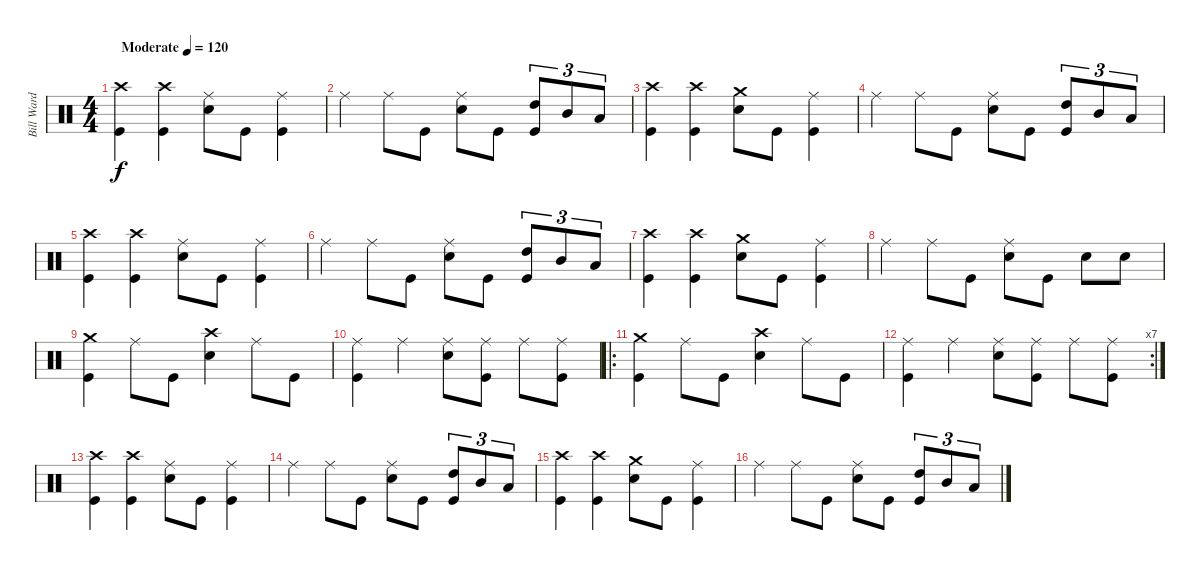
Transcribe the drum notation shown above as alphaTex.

\track ("Bill Ward" "Bill Ward") {instrument percussion}
\staff {score}
\articulation defaults
\ts (4 4)
\tempo (120 "Moderate")
\clef neutral
\ks c
("Crash high (hit)" "Kick (hit)").4{dy f} ("Crash high (hit)" "Kick (hit)").4 ("Ride (middle)" "Electric Snare (hit)").8 "Kick (hit)".8 ("Ride (middle)" "Kick (hit)").4 |
"Ride (middle)".4 "Ride (middle)".8 "Kick (hit)".8 ("Ride (middle)" "Electric Snare (hit)").8 "Kick (hit)".8 ("High Tom (hit)" "Kick (hit)").8{tu (3 2)} "Mid Tom (hit)".8{tu (3 2)} "Low Tom (hit)".8{tu (3 2)} |
("Crash high (hit)" "Kick (hit)").4 ("Crash high (hit)" "Kick (hit)").4 ("Crash medium (hit)" "Electric Snare (hit)").8 "Kick (hit)".8 ("Ride (middle)" "Kick (hit)").4 |
"Ride (middle)".4 "Ride (middle)".8 "Kick (hit)".8 ("Ride (middle)" "Electric Snare (hit)").8 "Kick (hit)".8 ("High Tom (hit)" "Kick (hit)").8{tu (3 2)} "Mid Tom (hit)".8{tu (3 2)} "Low Tom (hit)".8{tu (3 2)} |
("Crash high (hit)" "Kick (hit)").4 ("Crash high (hit)" "Kick (hit)").4 ("Ride (middle)" "Electric Snare (hit)").8 "Kick (hit)".8 ("Ride (middle)" "Kick (hit)").4 |
"Ride (middle)".4 "Ride (middle)".8 "Kick (hit)".8 ("Ride (middle)" "Electric Snare (hit)").8 "Kick (hit)".8 ("High Tom (hit)" "Kick (hit)").8{tu (3 2)} "Mid Tom (hit)".8{tu (3 2)} "Low Tom (hit)".8{tu (3 2)} |
("Crash high (hit)" "Kick (hit)").4 ("Crash high (hit)" "Kick (hit)").4 ("Crash medium (hit)" "Electric Snare (hit)").8 "Kick (hit)".8 ("Ride (middle)" "Kick (hit)").4 |
"Ride (middle)".4 "Ride (middle)".8 "Kick (hit)".8 ("Ride (middle)" "Electric Snare (hit)").8 "Kick (hit)".8 "Electric Snare (hit)".8 "Electric Snare (hit)".8 |
("Crash medium (hit)" "Kick (hit)").4 "Ride (middle)".8 "Kick (hit)".8 ("Crash high (hit)" "Electric Snare (hit)").4 "Ride (middle)".8 "Kick (hit)".8 |
("Ride (middle)" "Kick (hit)").4 "Ride (middle)".4 ("Ride (middle)" "Electric Snare (hit)").8 ("Ride (middle)" "Kick (hit)").8 "Ride (middle)".8 ("Ride (middle)" "Kick (hit)").8 |
\ro
("Crash medium (hit)" "Kick (hit)").4 "Ride (middle)".8 "Kick (hit)".8 ("Crash high (hit)" "Electric Snare (hit)").4 "Ride (middle)".8 "Kick (hit)".8 |
\rc 7
("Ride (middle)" "Kick (hit)").4 "Ride (middle)".4 ("Ride (middle)" "Electric Snare (hit)").8 ("Ride (middle)" "Kick (hit)").8 "Ride (middle)".8 ("Ride (middle)" "Kick (hit)").8 |
("Crash high (hit)" "Kick (hit)").4 ("Crash high (hit)" "Kick (hit)").4 ("Ride (middle)" "Electric Snare (hit)").8 "Kick (hit)".8 ("Ride (middle)" "Kick (hit)").4 |
"Ride (middle)".4 "Ride (middle)".8 "Kick (hit)".8 ("Ride (middle)" "Electric Snare (hit)").8 "Kick (hit)".8 ("High Tom (hit)" "Kick (hit)").8{tu (3 2)} "Mid Tom (hit)".8{tu (3 2)} "Low Tom (hit)".8{tu (3 2)} |
("Crash high (hit)" "Kick (hit)").4 ("Crash high (hit)" "Kick (hit)").4 ("Crash medium (hit)" "Electric Snare (hit)").8 "Kick (hit)".8 ("Ride (middle)" "Kick (hit)").4 |
"Ride (middle)".4 "Ride (middle)".8 "Kick (hit)".8 ("Ride (middle)" "Electric Snare (hit)").8 "Kick (hit)".8 ("High Tom (hit)" "Kick (hit)").8{tu (3 2)} "Mid Tom (hit)".8{tu (3 2)} "Low Tom (hit)".8{tu (3 2)}
